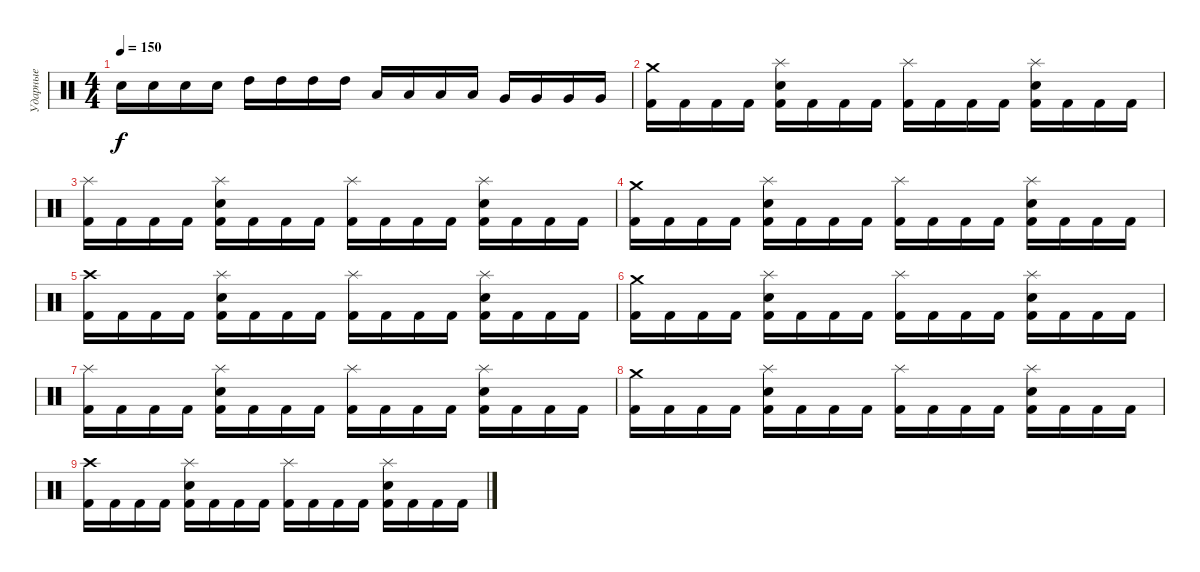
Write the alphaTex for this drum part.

\track ("Ударные" "Ударные") {instrument percussion}
\staff {score}
\articulation defaults
\ts (4 4)
\tempo 150
\clef neutral
\ks c "Electric Snare (hit)".16{dy f} "Electric Snare (hit)".16 "Electric Snare (hit)".16 "Electric Snare (hit)".16 "High Tom (hit)".16 "High Tom (hit)".16 "High Tom (hit)".16 "High Tom (hit)".16 "Low Tom (hit)".16 "Low Tom (hit)".16 "Low Tom (hit)".16 "Low Tom (hit)".16 "Very Low Tom (hit)".16 "Very Low Tom (hit)".16 "Very Low Tom (hit)".16 "Very Low Tom (hit)".16
|
("Crash medium (hit)" "Kick (hit) 2").16 "Kick (hit) 2".16 "Kick (hit) 2".16 "Kick (hit) 2".16 ("Splash (hit)" "Electric Snare (hit)" "Kick (hit) 2").16 "Kick (hit) 2".16 "Kick (hit) 2".16 "Kick (hit) 2".16 ("Splash (hit)" "Kick (hit) 2").16 "Kick (hit) 2".16 "Kick (hit) 2".16 "Kick (hit) 2".16 ("Splash (hit)" "Electric Snare (hit)" "Kick (hit) 2").16 "Kick (hit) 2".16 "Kick (hit) 2".16 "Kick (hit) 2".16 |
("Splash (hit)" "Kick (hit) 2").16 "Kick (hit) 2".16 "Kick (hit) 2".16 "Kick (hit) 2".16 ("Splash (hit)" "Electric Snare (hit)" "Kick (hit) 2").16 "Kick (hit) 2".16 "Kick (hit) 2".16 "Kick (hit) 2".16 ("Splash (hit)" "Kick (hit) 2").16 "Kick (hit) 2".16 "Kick (hit) 2".16 "Kick (hit) 2".16 ("Splash (hit)" "Electric Snare (hit)" "Kick (hit) 2").16 "Kick (hit) 2".16 "Kick (hit) 2".16 "Kick (hit) 2".16 |
("Crash medium (hit)" "Kick (hit) 2").16 "Kick (hit) 2".16 "Kick (hit) 2".16 "Kick (hit) 2".16 ("Splash (hit)" "Electric Snare (hit)" "Kick (hit) 2").16 "Kick (hit) 2".16 "Kick (hit) 2".16 "Kick (hit) 2".16 ("Splash (hit)" "Kick (hit) 2").16 "Kick (hit) 2".16 "Kick (hit) 2".16 "Kick (hit) 2".16 ("Splash (hit)" "Electric Snare (hit)" "Kick (hit) 2").16 "Kick (hit) 2".16 "Kick (hit) 2".16 "Kick (hit) 2".16 |
("Crash high (hit)" "Kick (hit) 2").16 "Kick (hit) 2".16 "Kick (hit) 2".16 "Kick (hit) 2".16 ("Splash (hit)" "Electric Snare (hit)" "Kick (hit) 2").16 "Kick (hit) 2".16 "Kick (hit) 2".16 "Kick (hit) 2".16 ("Splash (hit)" "Kick (hit) 2").16 "Kick (hit) 2".16 "Kick (hit) 2".16 "Kick (hit) 2".16 ("Splash (hit)" "Electric Snare (hit)" "Kick (hit) 2").16 "Kick (hit) 2".16 "Kick (hit) 2".16 "Kick (hit) 2".16 |
("Crash medium (hit)" "Kick (hit) 2").16 "Kick (hit) 2".16 "Kick (hit) 2".16 "Kick (hit) 2".16 ("Splash (hit)" "Electric Snare (hit)" "Kick (hit) 2").16 "Kick (hit) 2".16 "Kick (hit) 2".16 "Kick (hit) 2".16 ("Splash (hit)" "Kick (hit) 2").16 "Kick (hit) 2".16 "Kick (hit) 2".16 "Kick (hit) 2".16 ("Splash (hit)" "Electric Snare (hit)" "Kick (hit) 2").16 "Kick (hit) 2".16 "Kick (hit) 2".16 "Kick (hit) 2".16 |
("Splash (hit)" "Kick (hit) 2").16 "Kick (hit) 2".16 "Kick (hit) 2".16 "Kick (hit) 2".16 ("Splash (hit)" "Electric Snare (hit)" "Kick (hit) 2").16 "Kick (hit) 2".16 "Kick (hit) 2".16 "Kick (hit) 2".16 ("Splash (hit)" "Kick (hit) 2").16 "Kick (hit) 2".16 "Kick (hit) 2".16 "Kick (hit) 2".16 ("Splash (hit)" "Electric Snare (hit)" "Kick (hit) 2").16 "Kick (hit) 2".16 "Kick (hit) 2".16 "Kick (hit) 2".16 |
("Crash medium (hit)" "Kick (hit) 2").16 "Kick (hit) 2".16 "Kick (hit) 2".16 "Kick (hit) 2".16 ("Splash (hit)" "Electric Snare (hit)" "Kick (hit) 2").16 "Kick (hit) 2".16 "Kick (hit) 2".16 "Kick (hit) 2".16 ("Splash (hit)" "Kick (hit) 2").16 "Kick (hit) 2".16 "Kick (hit) 2".16 "Kick (hit) 2".16 ("Splash (hit)" "Electric Snare (hit)" "Kick (hit) 2").16 "Kick (hit) 2".16 "Kick (hit) 2".16 "Kick (hit) 2".16 |
("Crash high (hit)" "Kick (hit) 2").16 "Kick (hit) 2".16 "Kick (hit) 2".16 "Kick (hit) 2".16 ("Splash (hit)" "Electric Snare (hit)" "Kick (hit) 2").16 "Kick (hit) 2".16 "Kick (hit) 2".16 "Kick (hit) 2".16 ("Splash (hit)" "Kick (hit) 2").16 "Kick (hit) 2".16 "Kick (hit) 2".16 "Kick (hit) 2".16 ("Splash (hit)" "Electric Snare (hit)" "Kick (hit) 2").16 "Kick (hit) 2".16 "Kick (hit) 2".16 "Kick (hit) 2".16
